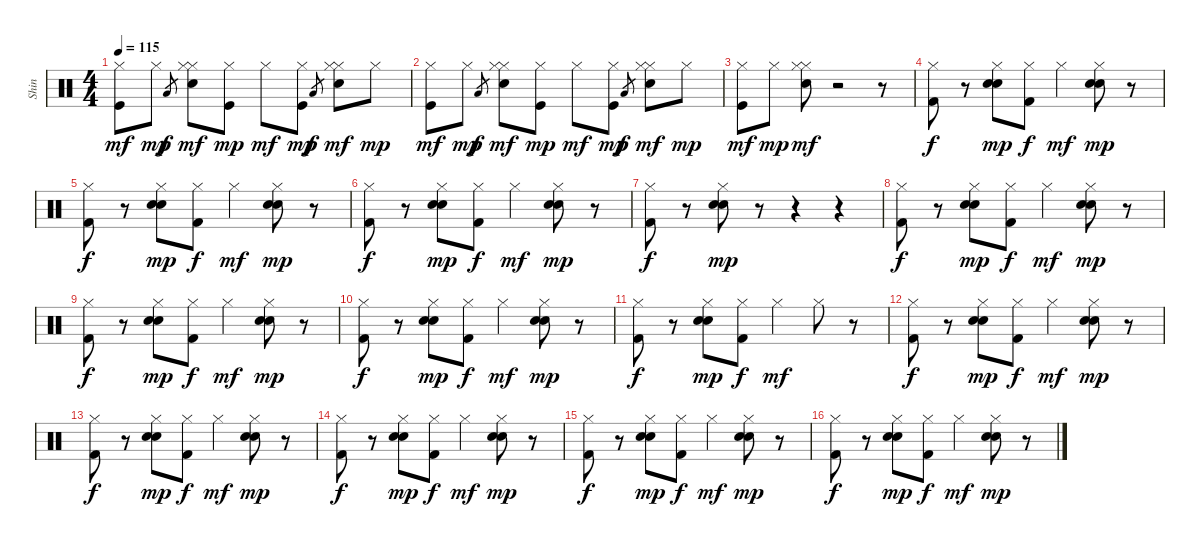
\track ("Shin" "Shin") {instrument percussion}
\staff {score}
\articulation defaults
\ts (4 4)
\tempo 115
\clef neutral
\ks c
("Hi-Hat (closed)" "Kick (hit)").8{dy mf} "Hi-Hat (closed)".8{dy mp} "Low Tom (hit)".8{gr dy f} ("Hi-Hat (closed)" "Hi-Hat (closed)" "Snare (hit) 2").8{dy mf} ("Hi-Hat (closed)" "Kick (hit)").8{dy mp} "Hi-Hat (closed)".8{dy mf} ("Hi-Hat (closed)" "Kick (hit)").8{dy mp} "Low Tom (hit)".8{gr dy f} ("Hi-Hat (closed)" "Hi-Hat (closed)" "Snare (hit) 2").8{dy mf} "Hi-Hat (closed)".8{dy mp} |
("Hi-Hat (closed)" "Kick (hit)").8{dy mf} "Hi-Hat (closed)".8{dy mp} "Low Tom (hit)".8{gr dy f} ("Hi-Hat (closed)" "Hi-Hat (closed)" "Snare (hit) 2").8{dy mf} ("Hi-Hat (closed)" "Kick (hit)").8{dy mp} "Hi-Hat (closed)".8{dy mf} ("Hi-Hat (closed)" "Kick (hit)").8{dy mp} "Low Tom (hit)".8{gr dy f} ("Hi-Hat (closed)" "Hi-Hat (closed)" "Snare (hit) 2").8{dy mf} "Hi-Hat (closed)".8{dy mp} |
("Hi-Hat (closed)" "Kick (hit)").8{dy mf} "Hi-Hat (closed)".8{dy mp} ("Hi-Hat (closed)" "Hi-Hat (closed)" "Snare (hit) 2").8{dy mf} r.2 r.8 |
("Kick (hit) 2" "Hi-Hat (closed)").8{dy f} r.8 ("Hi-Hat (closed)" "Snare (hit) 2" "Hand Clap (hit)").8{dy mp} ("Kick (hit) 2" "Hi-Hat (closed)").8{dy f} "Hi-Hat (closed)".4{dy mf} ("Hi-Hat (closed)" "Snare (hit) 2" "Hand Clap (hit)").8{dy mp} r.8 |
("Kick (hit) 2" "Hi-Hat (closed)").8{dy f} r.8 ("Hi-Hat (closed)" "Snare (hit) 2" "Hand Clap (hit)").8{dy mp} ("Kick (hit) 2" "Hi-Hat (closed)").8{dy f} "Hi-Hat (closed)".4{dy mf} ("Hi-Hat (closed)" "Snare (hit) 2" "Hand Clap (hit)").8{dy mp} r.8 |
("Kick (hit) 2" "Hi-Hat (closed)").8{dy f} r.8 ("Hi-Hat (closed)" "Snare (hit) 2" "Hand Clap (hit)").8{dy mp} ("Kick (hit) 2" "Hi-Hat (closed)").8{dy f} "Hi-Hat (closed)".4{dy mf} ("Hi-Hat (closed)" "Snare (hit) 2" "Hand Clap (hit)").8{dy mp} r.8 |
("Kick (hit) 2" "Hi-Hat (closed)").8{dy f} r.8 ("Hi-Hat (closed)" "Snare (hit) 2" "Hand Clap (hit)").8{dy mp} r.8 r.4 r.4 |
("Kick (hit) 2" "Hi-Hat (closed)").8{dy f} r.8 ("Hi-Hat (closed)" "Snare (hit) 2" "Hand Clap (hit)").8{dy mp} ("Kick (hit) 2" "Hi-Hat (closed)").8{dy f} "Hi-Hat (closed)".4{dy mf} ("Hi-Hat (closed)" "Snare (hit) 2" "Hand Clap (hit)").8{dy mp} r.8 |
("Kick (hit) 2" "Hi-Hat (closed)").8{dy f} r.8 ("Hi-Hat (closed)" "Snare (hit) 2" "Hand Clap (hit)").8{dy mp} ("Kick (hit) 2" "Hi-Hat (closed)").8{dy f} "Hi-Hat (closed)".4{dy mf} ("Hi-Hat (closed)" "Snare (hit) 2" "Hand Clap (hit)").8{dy mp} r.8 |
("Kick (hit) 2" "Hi-Hat (closed)").8{dy f} r.8 ("Hi-Hat (closed)" "Snare (hit) 2" "Hand Clap (hit)").8{dy mp} ("Kick (hit) 2" "Hi-Hat (closed)").8{dy f} "Hi-Hat (closed)".4{dy mf} ("Hi-Hat (closed)" "Snare (hit) 2" "Hand Clap (hit)").8{dy mp} r.8 |
("Kick (hit) 2" "Hi-Hat (closed)").8{dy f} r.8 ("Hi-Hat (closed)" "Snare (hit) 2" "Hand Clap (hit)").8{dy mp} ("Kick (hit) 2" "Hi-Hat (closed)").8{dy f} "Hi-Hat (closed)".4{dy mf} "Hi-Hat (closed)".8 r.8 |
("Kick (hit) 2" "Hi-Hat (closed)").8{dy f} r.8 ("Hi-Hat (closed)" "Snare (hit) 2" "Hand Clap (hit)").8{dy mp} ("Kick (hit) 2" "Hi-Hat (closed)").8{dy f} "Hi-Hat (closed)".4{dy mf} ("Hi-Hat (closed)" "Snare (hit) 2" "Hand Clap (hit)").8{dy mp} r.8 |
("Kick (hit) 2" "Hi-Hat (closed)").8{dy f} r.8 ("Hi-Hat (closed)" "Snare (hit) 2" "Hand Clap (hit)").8{dy mp} ("Kick (hit) 2" "Hi-Hat (closed)").8{dy f} "Hi-Hat (closed)".4{dy mf} ("Hi-Hat (closed)" "Snare (hit) 2" "Hand Clap (hit)").8{dy mp} r.8 |
("Kick (hit) 2" "Hi-Hat (closed)").8{dy f} r.8 ("Hi-Hat (closed)" "Snare (hit) 2" "Hand Clap (hit)").8{dy mp} ("Kick (hit) 2" "Hi-Hat (closed)").8{dy f} "Hi-Hat (closed)".4{dy mf} ("Hi-Hat (closed)" "Snare (hit) 2" "Hand Clap (hit)").8{dy mp} r.8 |
("Kick (hit) 2" "Hi-Hat (closed)").8{dy f} r.8 ("Hi-Hat (closed)" "Snare (hit) 2" "Hand Clap (hit)").8{dy mp} ("Kick (hit) 2" "Hi-Hat (closed)").8{dy f} "Hi-Hat (closed)".4{dy mf} ("Hi-Hat (closed)" "Snare (hit) 2" "Hand Clap (hit)").8{dy mp} r.8 |
("Kick (hit) 2" "Hi-Hat (closed)").8{dy f} r.8 ("Hi-Hat (closed)" "Snare (hit) 2" "Hand Clap (hit)").8{dy mp} ("Kick (hit) 2" "Hi-Hat (closed)").8{dy f} "Hi-Hat (closed)".4{dy mf} ("Hi-Hat (closed)" "Snare (hit) 2" "Hand Clap (hit)").8{dy mp} r.8
